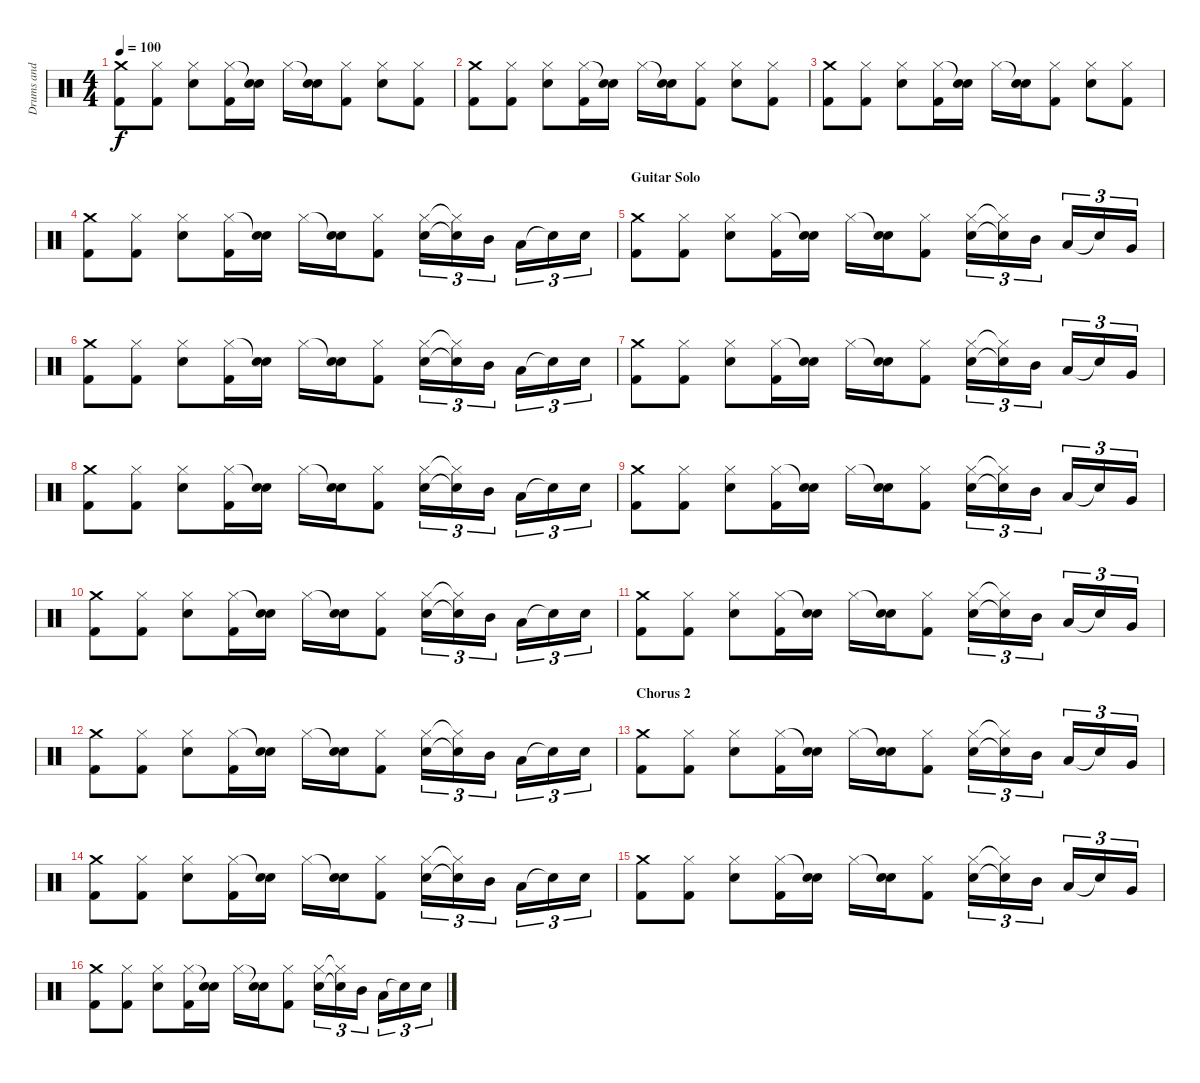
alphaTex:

\track ("Drums and Percussion" "Drums and ") {instrument percussion}
\staff {score}
\articulation defaults
\ts (4 4)
\tempo 100
\clef neutral
\ks c
("Crash medium (hit)" "Kick (hit) 2").8{dy f} ("Hi-Hat (closed)" "Kick (hit) 2").8 ("Hi-Hat (closed)" "Electric Snare (hit)").8 ("Hi-Hat (closed)" "Kick (hit) 2").16 ("Snare (hit)"{t} "Electric Snare (hit)").16 "Hi-Hat (closed)".16 ("Snare (hit)"{t} "Electric Snare (hit)").16 ("Hi-Hat (closed)" "Kick (hit) 2").8 ("Hi-Hat (closed)" "Electric Snare (hit)").8 ("Hi-Hat (closed)" "Kick (hit) 2").8 |
("Crash medium (hit)" "Kick (hit) 2").8 ("Hi-Hat (closed)" "Kick (hit) 2").8 ("Hi-Hat (closed)" "Electric Snare (hit)").8 ("Hi-Hat (closed)" "Kick (hit) 2").16 ("Snare (hit)"{t} "Electric Snare (hit)").16 "Hi-Hat (closed)".16 ("Snare (hit)"{t} "Electric Snare (hit)").16 ("Hi-Hat (closed)" "Kick (hit) 2").8 ("Hi-Hat (closed)" "Electric Snare (hit)").8 ("Hi-Hat (closed)" "Kick (hit) 2").8 |
("Crash medium (hit)" "Kick (hit) 2").8 ("Hi-Hat (closed)" "Kick (hit) 2").8 ("Hi-Hat (closed)" "Electric Snare (hit)").8 ("Hi-Hat (closed)" "Kick (hit) 2").16 ("Snare (hit)"{t} "Electric Snare (hit)").16 "Hi-Hat (closed)".16 ("Snare (hit)"{t} "Electric Snare (hit)").16 ("Hi-Hat (closed)" "Kick (hit) 2").8 ("Hi-Hat (closed)" "Electric Snare (hit)").8 ("Hi-Hat (closed)" "Kick (hit) 2").8 |
("Crash medium (hit)" "Kick (hit) 2").8 ("Hi-Hat (closed)" "Kick (hit) 2").8 ("Hi-Hat (closed)" "Electric Snare (hit)").8 ("Hi-Hat (closed)" "Kick (hit) 2").16 ("Snare (hit)"{t} "Electric Snare (hit)").16 "Hi-Hat (closed)".16 ("Snare (hit)"{t} "Electric Snare (hit)").16 ("Hi-Hat (closed)" "Kick (hit) 2").8 ("Hi-Hat (closed)" "Electric Snare (hit)").16{tu (3 2)} ("Hi-Hat (closed)"{t} "Snare (hit)"{t}).16{tu (3 2)} "Mid Tom (hit)".16{tu (3 2)} "Low Tom (hit)".16{tu (3 2)} "Snare (hit)"{t}.16{tu (3 2)} "Electric Snare (hit)".16{tu (3 2)} |
\section ("" "Guitar Solo")
("Crash medium (hit)" "Kick (hit) 2").8 ("Hi-Hat (closed)" "Kick (hit) 2").8 ("Hi-Hat (closed)" "Electric Snare (hit)").8 ("Hi-Hat (closed)" "Kick (hit) 2").16 ("Snare (hit)"{t} "Electric Snare (hit)").16 "Hi-Hat (closed)".16 ("Snare (hit)"{t} "Electric Snare (hit)").16 ("Hi-Hat (closed)" "Kick (hit) 2").8 ("Hi-Hat (closed)" "Electric Snare (hit)").16{tu (3 2)} ("Hi-Hat (closed)"{t} "Snare (hit)"{t}).16{tu (3 2)} "Mid Tom (hit)".16{tu (3 2)} "Low Tom (hit)".16{tu (3 2)} "Snare (hit)"{t}.16{tu (3 2)} "Very Low Tom (hit)".16{tu (3 2)} |
("Crash medium (hit)" "Kick (hit) 2").8 ("Hi-Hat (closed)" "Kick (hit) 2").8 ("Hi-Hat (closed)" "Electric Snare (hit)").8 ("Hi-Hat (closed)" "Kick (hit) 2").16 ("Snare (hit)"{t} "Electric Snare (hit)").16 "Hi-Hat (closed)".16 ("Snare (hit)"{t} "Electric Snare (hit)").16 ("Hi-Hat (closed)" "Kick (hit) 2").8 ("Hi-Hat (closed)" "Electric Snare (hit)").16{tu (3 2)} ("Hi-Hat (closed)"{t} "Snare (hit)"{t}).16{tu (3 2)} "Mid Tom (hit)".16{tu (3 2)} "Low Tom (hit)".16{tu (3 2)} "Snare (hit)"{t}.16{tu (3 2)} "Electric Snare (hit)".16{tu (3 2)} |
("Crash medium (hit)" "Kick (hit) 2").8 ("Hi-Hat (closed)" "Kick (hit) 2").8 ("Hi-Hat (closed)" "Electric Snare (hit)").8 ("Hi-Hat (closed)" "Kick (hit) 2").16 ("Snare (hit)"{t} "Electric Snare (hit)").16 "Hi-Hat (closed)".16 ("Snare (hit)"{t} "Electric Snare (hit)").16 ("Hi-Hat (closed)" "Kick (hit) 2").8 ("Hi-Hat (closed)" "Electric Snare (hit)").16{tu (3 2)} ("Hi-Hat (closed)"{t} "Snare (hit)"{t}).16{tu (3 2)} "Mid Tom (hit)".16{tu (3 2)} "Low Tom (hit)".16{tu (3 2)} "Snare (hit)"{t}.16{tu (3 2)} "Very Low Tom (hit)".16{tu (3 2)} |
("Crash medium (hit)" "Kick (hit) 2").8 ("Hi-Hat (closed)" "Kick (hit) 2").8 ("Hi-Hat (closed)" "Electric Snare (hit)").8 ("Hi-Hat (closed)" "Kick (hit) 2").16 ("Snare (hit)"{t} "Electric Snare (hit)").16 "Hi-Hat (closed)".16 ("Snare (hit)"{t} "Electric Snare (hit)").16 ("Hi-Hat (closed)" "Kick (hit) 2").8 ("Hi-Hat (closed)" "Electric Snare (hit)").16{tu (3 2)} ("Hi-Hat (closed)"{t} "Snare (hit)"{t}).16{tu (3 2)} "Mid Tom (hit)".16{tu (3 2)} "Low Tom (hit)".16{tu (3 2)} "Snare (hit)"{t}.16{tu (3 2)} "Electric Snare (hit)".16{tu (3 2)} |
("Crash medium (hit)" "Kick (hit) 2").8 ("Hi-Hat (closed)" "Kick (hit) 2").8 ("Hi-Hat (closed)" "Electric Snare (hit)").8 ("Hi-Hat (closed)" "Kick (hit) 2").16 ("Snare (hit)"{t} "Electric Snare (hit)").16 "Hi-Hat (closed)".16 ("Snare (hit)"{t} "Electric Snare (hit)").16 ("Hi-Hat (closed)" "Kick (hit) 2").8 ("Hi-Hat (closed)" "Electric Snare (hit)").16{tu (3 2)} ("Hi-Hat (closed)"{t} "Snare (hit)"{t}).16{tu (3 2)} "Mid Tom (hit)".16{tu (3 2)} "Low Tom (hit)".16{tu (3 2)} "Snare (hit)"{t}.16{tu (3 2)} "Very Low Tom (hit)".16{tu (3 2)} |
("Crash medium (hit)" "Kick (hit) 2").8 ("Hi-Hat (closed)" "Kick (hit) 2").8 ("Hi-Hat (closed)" "Electric Snare (hit)").8 ("Hi-Hat (closed)" "Kick (hit) 2").16 ("Snare (hit)"{t} "Electric Snare (hit)").16 "Hi-Hat (closed)".16 ("Snare (hit)"{t} "Electric Snare (hit)").16 ("Hi-Hat (closed)" "Kick (hit) 2").8 ("Hi-Hat (closed)" "Electric Snare (hit)").16{tu (3 2)} ("Hi-Hat (closed)"{t} "Snare (hit)"{t}).16{tu (3 2)} "Mid Tom (hit)".16{tu (3 2)} "Low Tom (hit)".16{tu (3 2)} "Snare (hit)"{t}.16{tu (3 2)} "Electric Snare (hit)".16{tu (3 2)} |
("Crash medium (hit)" "Kick (hit) 2").8 ("Hi-Hat (closed)" "Kick (hit) 2").8 ("Hi-Hat (closed)" "Electric Snare (hit)").8 ("Hi-Hat (closed)" "Kick (hit) 2").16 ("Snare (hit)"{t} "Electric Snare (hit)").16 "Hi-Hat (closed)".16 ("Snare (hit)"{t} "Electric Snare (hit)").16 ("Hi-Hat (closed)" "Kick (hit) 2").8 ("Hi-Hat (closed)" "Electric Snare (hit)").16{tu (3 2)} ("Hi-Hat (closed)"{t} "Snare (hit)"{t}).16{tu (3 2)} "Mid Tom (hit)".16{tu (3 2)} "Low Tom (hit)".16{tu (3 2)} "Snare (hit)"{t}.16{tu (3 2)} "Very Low Tom (hit)".16{tu (3 2)} |
("Crash medium (hit)" "Kick (hit) 2").8 ("Hi-Hat (closed)" "Kick (hit) 2").8 ("Hi-Hat (closed)" "Electric Snare (hit)").8 ("Hi-Hat (closed)" "Kick (hit) 2").16 ("Snare (hit)"{t} "Electric Snare (hit)").16 "Hi-Hat (closed)".16 ("Snare (hit)"{t} "Electric Snare (hit)").16 ("Hi-Hat (closed)" "Kick (hit) 2").8 ("Hi-Hat (closed)" "Electric Snare (hit)").16{tu (3 2)} ("Hi-Hat (closed)"{t} "Snare (hit)"{t}).16{tu (3 2)} "Mid Tom (hit)".16{tu (3 2)} "Low Tom (hit)".16{tu (3 2)} "Snare (hit)"{t}.16{tu (3 2)} "Electric Snare (hit)".16{tu (3 2)} |
\section ("" "Chorus 2")
("Crash medium (hit)" "Kick (hit) 2").8 ("Hi-Hat (closed)" "Kick (hit) 2").8 ("Hi-Hat (closed)" "Electric Snare (hit)").8 ("Hi-Hat (closed)" "Kick (hit) 2").16 ("Snare (hit)"{t} "Electric Snare (hit)").16 "Hi-Hat (closed)".16 ("Snare (hit)"{t} "Electric Snare (hit)").16 ("Hi-Hat (closed)" "Kick (hit) 2").8 ("Hi-Hat (closed)" "Electric Snare (hit)").16{tu (3 2)} ("Hi-Hat (closed)"{t} "Snare (hit)"{t}).16{tu (3 2)} "Mid Tom (hit)".16{tu (3 2)} "Low Tom (hit)".16{tu (3 2)} "Snare (hit)"{t}.16{tu (3 2)} "Very Low Tom (hit)".16{tu (3 2)} |
("Crash medium (hit)" "Kick (hit) 2").8 ("Hi-Hat (closed)" "Kick (hit) 2").8 ("Hi-Hat (closed)" "Electric Snare (hit)").8 ("Hi-Hat (closed)" "Kick (hit) 2").16 ("Snare (hit)"{t} "Electric Snare (hit)").16 "Hi-Hat (closed)".16 ("Snare (hit)"{t} "Electric Snare (hit)").16 ("Hi-Hat (closed)" "Kick (hit) 2").8 ("Hi-Hat (closed)" "Electric Snare (hit)").16{tu (3 2)} ("Hi-Hat (closed)"{t} "Snare (hit)"{t}).16{tu (3 2)} "Mid Tom (hit)".16{tu (3 2)} "Low Tom (hit)".16{tu (3 2)} "Snare (hit)"{t}.16{tu (3 2)} "Electric Snare (hit)".16{tu (3 2)} |
("Crash medium (hit)" "Kick (hit) 2").8 ("Hi-Hat (closed)" "Kick (hit) 2").8 ("Hi-Hat (closed)" "Electric Snare (hit)").8 ("Hi-Hat (closed)" "Kick (hit) 2").16 ("Snare (hit)"{t} "Electric Snare (hit)").16 "Hi-Hat (closed)".16 ("Snare (hit)"{t} "Electric Snare (hit)").16 ("Hi-Hat (closed)" "Kick (hit) 2").8 ("Hi-Hat (closed)" "Electric Snare (hit)").16{tu (3 2)} ("Hi-Hat (closed)"{t} "Snare (hit)"{t}).16{tu (3 2)} "Mid Tom (hit)".16{tu (3 2)} "Low Tom (hit)".16{tu (3 2)} "Snare (hit)"{t}.16{tu (3 2)} "Very Low Tom (hit)".16{tu (3 2)} |
("Crash medium (hit)" "Kick (hit) 2").8 ("Hi-Hat (closed)" "Kick (hit) 2").8 ("Hi-Hat (closed)" "Electric Snare (hit)").8 ("Hi-Hat (closed)" "Kick (hit) 2").16 ("Snare (hit)"{t} "Electric Snare (hit)").16 "Hi-Hat (closed)".16 ("Snare (hit)"{t} "Electric Snare (hit)").16 ("Hi-Hat (closed)" "Kick (hit) 2").8 ("Hi-Hat (closed)" "Electric Snare (hit)").16{tu (3 2)} ("Hi-Hat (closed)"{t} "Snare (hit)"{t}).16{tu (3 2)} "Mid Tom (hit)".16{tu (3 2)} "Low Tom (hit)".16{tu (3 2)} "Snare (hit)"{t}.16{tu (3 2)} "Electric Snare (hit)".16{tu (3 2)}
